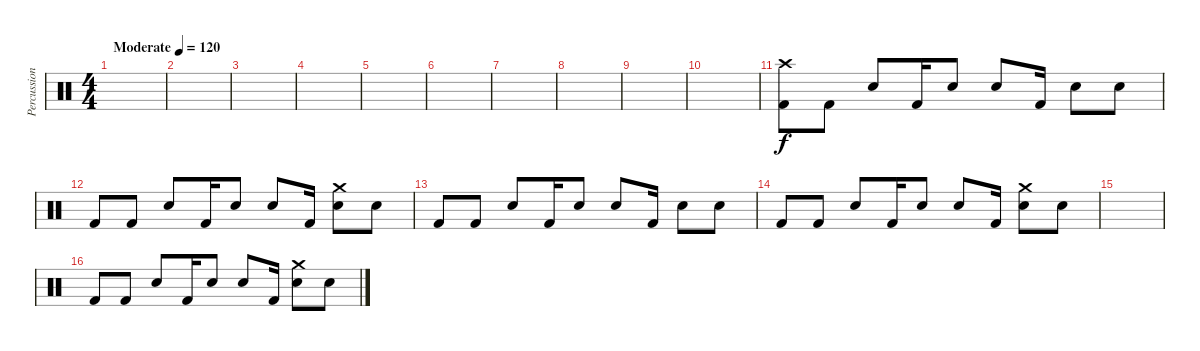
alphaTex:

\track ("Percussion" "Percussion") {instrument percussion}
\staff {score}
\articulation defaults
\ts (4 4)
\tempo (120 "Moderate")
\clef neutral
\ks c
|
|
|
|
|
|
|
|
|
|
("Crash high (hit)" "Kick (hit) 2").8 "Kick (hit) 2".8 "Snare (hit) 2".8 "Kick (hit) 2".16 "Snare (hit) 2".8 "Snare (hit) 2".8 "Kick (hit) 2".16 "Snare (hit) 2".8 "Snare (hit)".8 |
"Kick (hit) 2".8 "Kick (hit) 2".8 "Snare (hit) 2".8 "Kick (hit) 2".16 "Snare (hit) 2".8 "Snare (hit) 2".8 "Kick (hit) 2".16 ("Crash medium (hit)" "Snare (hit) 2").8 "Snare (hit)".8 |
"Kick (hit) 2".8 "Kick (hit) 2".8 "Snare (hit) 2".8 "Kick (hit) 2".16 "Snare (hit) 2".8 "Snare (hit) 2".8 "Kick (hit) 2".16 "Snare (hit) 2".8 "Snare (hit)".8 |
"Kick (hit) 2".8 "Kick (hit) 2".8 "Snare (hit) 2".8 "Kick (hit) 2".16 "Snare (hit) 2".8 "Snare (hit) 2".8 "Kick (hit) 2".16 ("Crash medium (hit)" "Snare (hit) 2").8 "Snare (hit)".8 |
|
"Kick (hit) 2".8 "Kick (hit) 2".8 "Snare (hit) 2".8 "Kick (hit) 2".16 "Snare (hit) 2".8 "Snare (hit) 2".8 "Kick (hit) 2".16 ("Crash medium (hit)" "Snare (hit) 2").8 "Snare (hit)".8
